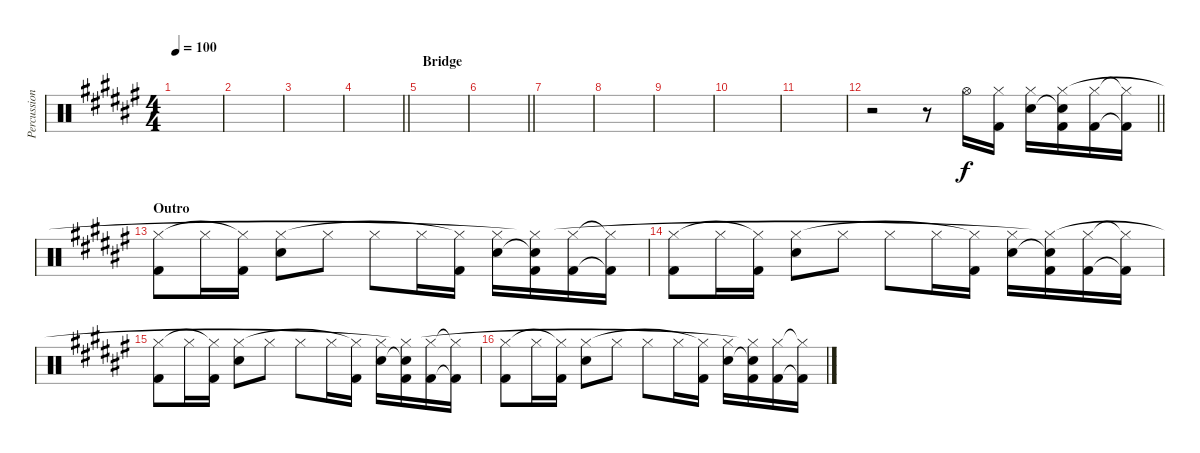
\track ("Percussion" "Percussion") {instrument percussion}
\staff {score}
\articulation defaults
\ts (4 4)
\tempo 100
\clef neutral
\ks d#minor
|
\ks f#
|
\ks d#minor
|
\barLineRight lightlight
|
\section ("" "Bridge")
|
\barLineRight lightlight
|
|
|
\ks f#
|
|
|
\barLineRight lightlight
r.2 r.8 "Hi-Hat (open)".16 ("Kick (hit) 2" "Hi-Hat (closed)").16 ("Snare (hit) 2" "Hi-Hat (closed)").16 ("Snare (hit) 2"{t} "Kick (hit) 2" "Hi-Hat (closed)").16 ("Kick (hit) 2" "Hi-Hat (closed)").16 ("Kick (hit) 2"{t} "Hi-Hat (closed)"{t}).16 |
\section ("" "Outro")
\ks d#minor
("Kick (hit) 2" "Hi-Hat (closed)").8 "Hi-Hat (closed)".16 ("Kick (hit) 2" "Hi-Hat (closed)"{t}).16 ("Snare (hit) 2" "Hi-Hat (closed)").8 "Hi-Hat (closed)".8 "Hi-Hat (closed)".8 "Hi-Hat (closed)".16 ("Kick (hit) 2" "Hi-Hat (closed)"{t}).16 ("Snare (hit) 2" "Hi-Hat (closed)").16 ("Snare (hit) 2"{t} "Kick (hit) 2" "Hi-Hat (closed)"{t}).16 ("Kick (hit) 2" "Hi-Hat (closed)").16 ("Kick (hit) 2"{t} "Hi-Hat (closed)"{t}).16 |
("Kick (hit) 2" "Hi-Hat (closed)").8 "Hi-Hat (closed)".16 ("Kick (hit) 2" "Hi-Hat (closed)"{t}).16 ("Snare (hit) 2" "Hi-Hat (closed)").8 "Hi-Hat (closed)".8 "Hi-Hat (closed)".8 "Hi-Hat (closed)".16 ("Kick (hit) 2" "Hi-Hat (closed)"{t}).16 ("Snare (hit) 2" "Hi-Hat (closed)").16 ("Snare (hit) 2"{t} "Kick (hit) 2" "Hi-Hat (closed)"{t}).16 ("Kick (hit) 2" "Hi-Hat (closed)").16 ("Kick (hit) 2"{t} "Hi-Hat (closed)"{t}).16 |
("Kick (hit) 2" "Hi-Hat (closed)").8 "Hi-Hat (closed)".16 ("Kick (hit) 2" "Hi-Hat (closed)"{t}).16 ("Snare (hit) 2" "Hi-Hat (closed)").8 "Hi-Hat (closed)".8 "Hi-Hat (closed)".8 "Hi-Hat (closed)".16 ("Kick (hit) 2" "Hi-Hat (closed)"{t}).16 ("Snare (hit) 2" "Hi-Hat (closed)").16 ("Snare (hit) 2"{t} "Kick (hit) 2" "Hi-Hat (closed)"{t}).16 ("Kick (hit) 2" "Hi-Hat (closed)").16 ("Kick (hit) 2"{t} "Hi-Hat (closed)"{t}).16 |
\ks f#
("Kick (hit) 2" "Hi-Hat (closed)").8 "Hi-Hat (closed)".16 ("Kick (hit) 2" "Hi-Hat (closed)"{t}).16 ("Snare (hit) 2" "Hi-Hat (closed)").8 "Hi-Hat (closed)".8 "Hi-Hat (closed)".8 "Hi-Hat (closed)".16 ("Kick (hit) 2" "Hi-Hat (closed)"{t}).16 ("Snare (hit) 2" "Hi-Hat (closed)").16 ("Snare (hit) 2"{t} "Kick (hit) 2" "Hi-Hat (closed)"{t}).16 ("Kick (hit) 2" "Hi-Hat (closed)").16 ("Kick (hit) 2"{t} "Hi-Hat (closed)"{t}).16
